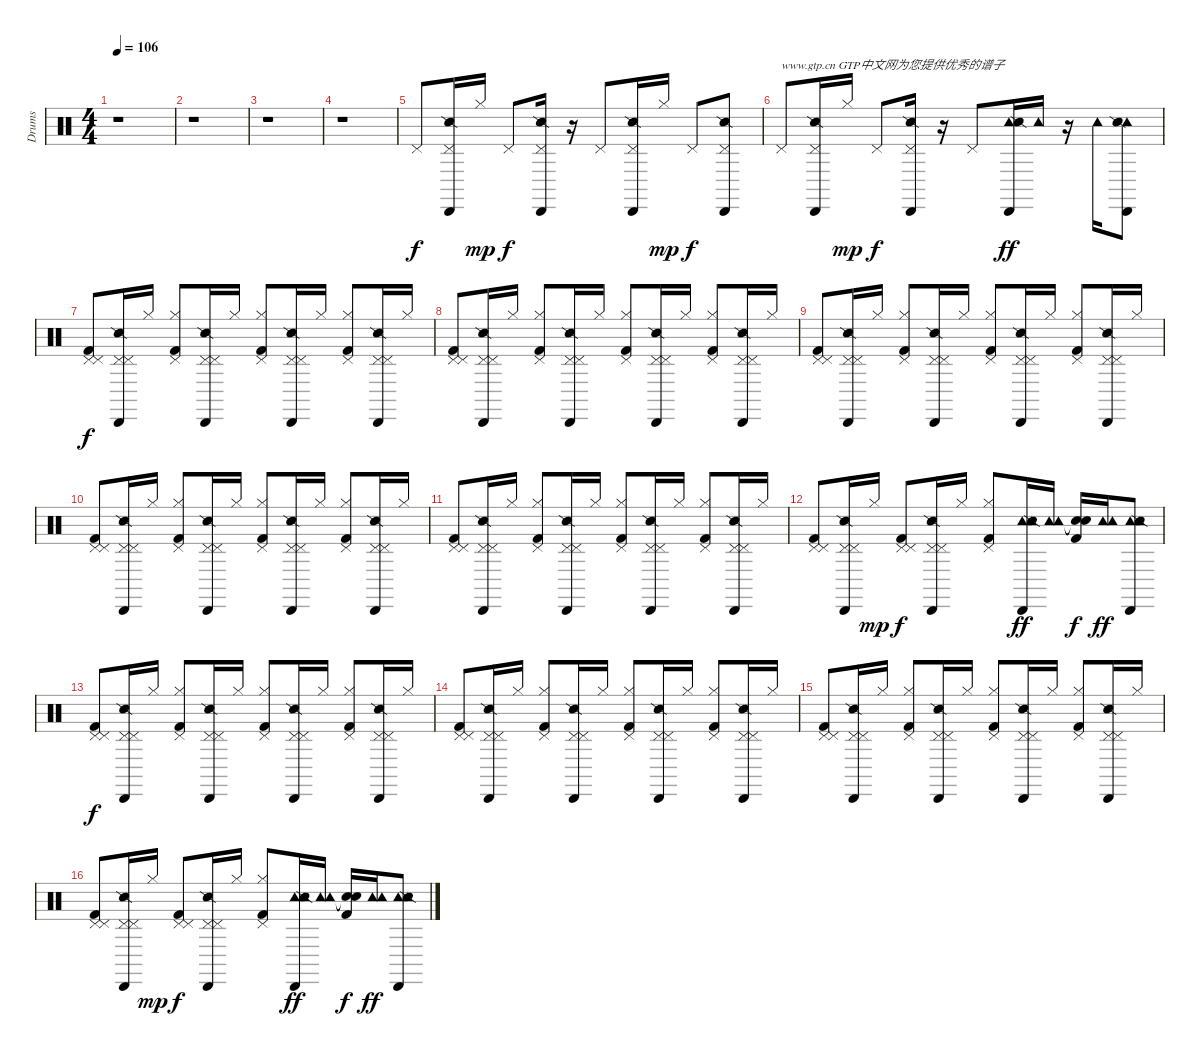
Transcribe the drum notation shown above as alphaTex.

\track ("Drums" "Drums") {instrument percussion}
\staff {score}
\articulation defaults
\ts (4 4)
\tempo 106
\clef neutral
\ks c
r.1{dy f volume 15} |
r.1 |
r.1 |
r.1 |
"Pedal Hi-Hat (hit)".8 ("Pedal Hi-Hat (hit)" "Snare (side stick) 2" "Cabasa (hit)").16 "Hi-Hat (closed)".16{dy mp} "Pedal Hi-Hat (hit)".8{dy f} ("Pedal Hi-Hat (hit)" "Snare (side stick) 2" "Cabasa (hit)").16 r.16 "Pedal Hi-Hat (hit)".8 ("Pedal Hi-Hat (hit)" "Snare (side stick) 2" "Cabasa (hit)").16 "Hi-Hat (closed)".16{dy mp} "Pedal Hi-Hat (hit)".8{dy f} ("Pedal Hi-Hat (hit)" "Snare (side stick) 2" "Cabasa (hit)").8 |
"Pedal Hi-Hat (hit)".8{txt "www.gtp.cn GTP中文网为您提供优秀的谱子"} ("Pedal Hi-Hat (hit)" "Snare (side stick) 2" "Cabasa (hit)").16 "Hi-Hat (closed)".16{dy mp} "Pedal Hi-Hat (hit)".8{dy f} ("Pedal Hi-Hat (hit)" "Snare (side stick) 2" "Cabasa (hit)").16 r.16 "Pedal Hi-Hat (hit)".8 ("Tambourine (hit)" "Snare (side stick) 2" "Cabasa (hit)").16{dy ff} "Tambourine (hit)".16 r.16 "Tambourine (hit)".16 ("Tambourine (hit)" "Snare (side stick) 2" "Cabasa (hit)").8 |
("Pedal Hi-Hat (hit)" "Pedal Hi-Hat (hit)" "Kick (hit) 2").8{dy f} ("Pedal Hi-Hat (hit)" "Pedal Hi-Hat (hit)" "Snare (side stick) 2" "Cabasa (hit)").16 "Hi-Hat (closed)".16 ("Pedal Hi-Hat (hit)" "Hi-Hat (closed)" "Kick (hit) 2").8 ("Pedal Hi-Hat (hit)" "Pedal Hi-Hat (hit)" "Snare (side stick) 2" "Cabasa (hit)").16 "Hi-Hat (closed)".16 ("Pedal Hi-Hat (hit)" "Hi-Hat (closed)" "Kick (hit) 2").8 ("Pedal Hi-Hat (hit)" "Pedal Hi-Hat (hit)" "Snare (side stick) 2" "Cabasa (hit)").16 "Hi-Hat (closed)".16 ("Pedal Hi-Hat (hit)" "Hi-Hat (closed)" "Kick (hit) 2").8 ("Pedal Hi-Hat (hit)" "Pedal Hi-Hat (hit)" "Snare (side stick) 2" "Cabasa (hit)").16 "Hi-Hat (closed)".16 |
("Pedal Hi-Hat (hit)" "Pedal Hi-Hat (hit)" "Kick (hit) 2").8 ("Pedal Hi-Hat (hit)" "Pedal Hi-Hat (hit)" "Snare (side stick) 2" "Cabasa (hit)").16 "Hi-Hat (closed)".16 ("Pedal Hi-Hat (hit)" "Hi-Hat (closed)" "Kick (hit) 2").8 ("Pedal Hi-Hat (hit)" "Pedal Hi-Hat (hit)" "Snare (side stick) 2" "Cabasa (hit)").16 "Hi-Hat (closed)".16 ("Pedal Hi-Hat (hit)" "Hi-Hat (closed)" "Kick (hit) 2").8 ("Pedal Hi-Hat (hit)" "Pedal Hi-Hat (hit)" "Snare (side stick) 2" "Cabasa (hit)").16 "Hi-Hat (closed)".16 ("Pedal Hi-Hat (hit)" "Hi-Hat (closed)" "Kick (hit) 2").8 ("Pedal Hi-Hat (hit)" "Pedal Hi-Hat (hit)" "Snare (side stick) 2" "Cabasa (hit)").16 "Hi-Hat (closed)".16 |
("Pedal Hi-Hat (hit)" "Pedal Hi-Hat (hit)" "Kick (hit) 2").8 ("Pedal Hi-Hat (hit)" "Pedal Hi-Hat (hit)" "Snare (side stick) 2" "Cabasa (hit)").16 "Hi-Hat (closed)".16 ("Pedal Hi-Hat (hit)" "Hi-Hat (closed)" "Kick (hit) 2").8 ("Pedal Hi-Hat (hit)" "Pedal Hi-Hat (hit)" "Snare (side stick) 2" "Cabasa (hit)").16 "Hi-Hat (closed)".16 ("Pedal Hi-Hat (hit)" "Hi-Hat (closed)" "Kick (hit) 2").8 ("Pedal Hi-Hat (hit)" "Pedal Hi-Hat (hit)" "Snare (side stick) 2" "Cabasa (hit)").16 "Hi-Hat (closed)".16 ("Pedal Hi-Hat (hit)" "Hi-Hat (closed)" "Kick (hit) 2").8 ("Pedal Hi-Hat (hit)" "Pedal Hi-Hat (hit)" "Snare (side stick) 2" "Cabasa (hit)").16 "Hi-Hat (closed)".16 |
("Pedal Hi-Hat (hit)" "Pedal Hi-Hat (hit)" "Kick (hit) 2").8 ("Pedal Hi-Hat (hit)" "Pedal Hi-Hat (hit)" "Snare (side stick) 2" "Cabasa (hit)").16 "Hi-Hat (closed)".16 ("Pedal Hi-Hat (hit)" "Hi-Hat (closed)" "Kick (hit) 2").8 ("Pedal Hi-Hat (hit)" "Pedal Hi-Hat (hit)" "Snare (side stick) 2" "Cabasa (hit)").16 "Hi-Hat (closed)".16 ("Pedal Hi-Hat (hit)" "Hi-Hat (closed)" "Kick (hit) 2").8 ("Pedal Hi-Hat (hit)" "Pedal Hi-Hat (hit)" "Snare (side stick) 2" "Cabasa (hit)").16 "Hi-Hat (closed)".16 ("Pedal Hi-Hat (hit)" "Hi-Hat (closed)" "Kick (hit) 2").8 ("Pedal Hi-Hat (hit)" "Pedal Hi-Hat (hit)" "Snare (side stick) 2" "Cabasa (hit)").16 "Hi-Hat (closed)".16 |
("Pedal Hi-Hat (hit)" "Pedal Hi-Hat (hit)" "Kick (hit) 2").8 ("Pedal Hi-Hat (hit)" "Pedal Hi-Hat (hit)" "Snare (side stick) 2" "Cabasa (hit)").16 "Hi-Hat (closed)".16 ("Pedal Hi-Hat (hit)" "Hi-Hat (closed)" "Kick (hit) 2").8 ("Pedal Hi-Hat (hit)" "Pedal Hi-Hat (hit)" "Snare (side stick) 2" "Cabasa (hit)").16 "Hi-Hat (closed)".16 ("Pedal Hi-Hat (hit)" "Hi-Hat (closed)" "Kick (hit) 2").8 ("Pedal Hi-Hat (hit)" "Pedal Hi-Hat (hit)" "Snare (side stick) 2" "Cabasa (hit)").16 "Hi-Hat (closed)".16 ("Pedal Hi-Hat (hit)" "Hi-Hat (closed)" "Kick (hit) 2").8 ("Pedal Hi-Hat (hit)" "Pedal Hi-Hat (hit)" "Snare (side stick) 2" "Cabasa (hit)").16 "Hi-Hat (closed)".16 |
("Pedal Hi-Hat (hit)" "Pedal Hi-Hat (hit)" "Kick (hit) 2").8 ("Pedal Hi-Hat (hit)" "Pedal Hi-Hat (hit)" "Snare (side stick) 2" "Cabasa (hit)").16 "Hi-Hat (closed)".16{dy mp} ("Pedal Hi-Hat (hit)" "Pedal Hi-Hat (hit)" "Kick (hit) 2").8{dy f} ("Pedal Hi-Hat (hit)" "Pedal Hi-Hat (hit)" "Snare (side stick) 2" "Cabasa (hit)").16 "Hi-Hat (closed)".16 ("Pedal Hi-Hat (hit)" "Hi-Hat (closed)" "Kick (hit) 2").8 ("Tambourine (hit)" "Tambourine (hit)" "Snare (side stick) 2" "Cabasa (hit)").16{dy ff} ("Tambourine (hit)" "Tambourine (hit)").16 ("Snare (hit)"{t} "Snare (hit)"{t} "Kick (hit) 2").16{dy f} ("Tambourine (hit)" "Tambourine (hit)").16{dy ff} ("Tambourine (hit)" "Tambourine (hit)" "Snare (side stick) 2" "Cabasa (hit)").8 |
("Pedal Hi-Hat (hit)" "Pedal Hi-Hat (hit)" "Kick (hit) 2").8{dy f} ("Pedal Hi-Hat (hit)" "Pedal Hi-Hat (hit)" "Snare (side stick) 2" "Cabasa (hit)").16 "Hi-Hat (closed)".16 ("Pedal Hi-Hat (hit)" "Hi-Hat (closed)" "Kick (hit) 2").8 ("Pedal Hi-Hat (hit)" "Pedal Hi-Hat (hit)" "Snare (side stick) 2" "Cabasa (hit)").16 "Hi-Hat (closed)".16 ("Pedal Hi-Hat (hit)" "Hi-Hat (closed)" "Kick (hit) 2").8 ("Pedal Hi-Hat (hit)" "Pedal Hi-Hat (hit)" "Snare (side stick) 2" "Cabasa (hit)").16 "Hi-Hat (closed)".16 ("Pedal Hi-Hat (hit)" "Hi-Hat (closed)" "Kick (hit) 2").8 ("Pedal Hi-Hat (hit)" "Pedal Hi-Hat (hit)" "Snare (side stick) 2" "Cabasa (hit)").16 "Hi-Hat (closed)".16 |
("Pedal Hi-Hat (hit)" "Pedal Hi-Hat (hit)" "Kick (hit) 2").8 ("Pedal Hi-Hat (hit)" "Pedal Hi-Hat (hit)" "Snare (side stick) 2" "Cabasa (hit)").16 "Hi-Hat (closed)".16 ("Pedal Hi-Hat (hit)" "Hi-Hat (closed)" "Kick (hit) 2").8 ("Pedal Hi-Hat (hit)" "Pedal Hi-Hat (hit)" "Snare (side stick) 2" "Cabasa (hit)").16 "Hi-Hat (closed)".16 ("Pedal Hi-Hat (hit)" "Hi-Hat (closed)" "Kick (hit) 2").8 ("Pedal Hi-Hat (hit)" "Pedal Hi-Hat (hit)" "Snare (side stick) 2" "Cabasa (hit)").16 "Hi-Hat (closed)".16 ("Pedal Hi-Hat (hit)" "Hi-Hat (closed)" "Kick (hit) 2").8 ("Pedal Hi-Hat (hit)" "Pedal Hi-Hat (hit)" "Snare (side stick) 2" "Cabasa (hit)").16 "Hi-Hat (closed)".16 |
("Pedal Hi-Hat (hit)" "Pedal Hi-Hat (hit)" "Kick (hit) 2").8 ("Pedal Hi-Hat (hit)" "Pedal Hi-Hat (hit)" "Snare (side stick) 2" "Cabasa (hit)").16 "Hi-Hat (closed)".16 ("Pedal Hi-Hat (hit)" "Hi-Hat (closed)" "Kick (hit) 2").8 ("Pedal Hi-Hat (hit)" "Pedal Hi-Hat (hit)" "Snare (side stick) 2" "Cabasa (hit)").16 "Hi-Hat (closed)".16 ("Pedal Hi-Hat (hit)" "Hi-Hat (closed)" "Kick (hit) 2").8 ("Pedal Hi-Hat (hit)" "Pedal Hi-Hat (hit)" "Snare (side stick) 2" "Cabasa (hit)").16 "Hi-Hat (closed)".16 ("Pedal Hi-Hat (hit)" "Hi-Hat (closed)" "Kick (hit) 2").8 ("Pedal Hi-Hat (hit)" "Pedal Hi-Hat (hit)" "Snare (side stick) 2" "Cabasa (hit)").16 "Hi-Hat (closed)".16 |
("Pedal Hi-Hat (hit)" "Pedal Hi-Hat (hit)" "Kick (hit) 2").8 ("Pedal Hi-Hat (hit)" "Pedal Hi-Hat (hit)" "Snare (side stick) 2" "Cabasa (hit)").16 "Hi-Hat (closed)".16{dy mp} ("Pedal Hi-Hat (hit)" "Pedal Hi-Hat (hit)" "Kick (hit) 2").8{dy f} ("Pedal Hi-Hat (hit)" "Pedal Hi-Hat (hit)" "Snare (side stick) 2" "Cabasa (hit)").16 "Hi-Hat (closed)".16 ("Pedal Hi-Hat (hit)" "Hi-Hat (closed)" "Kick (hit) 2").8 ("Tambourine (hit)" "Tambourine (hit)" "Snare (side stick) 2" "Cabasa (hit)").16{dy ff} ("Tambourine (hit)" "Tambourine (hit)").16 ("Snare (hit)"{t} "Snare (hit)"{t} "Kick (hit) 2").16{dy f} ("Tambourine (hit)" "Tambourine (hit)").16{dy ff} ("Tambourine (hit)" "Tambourine (hit)" "Snare (side stick) 2" "Cabasa (hit)").8
